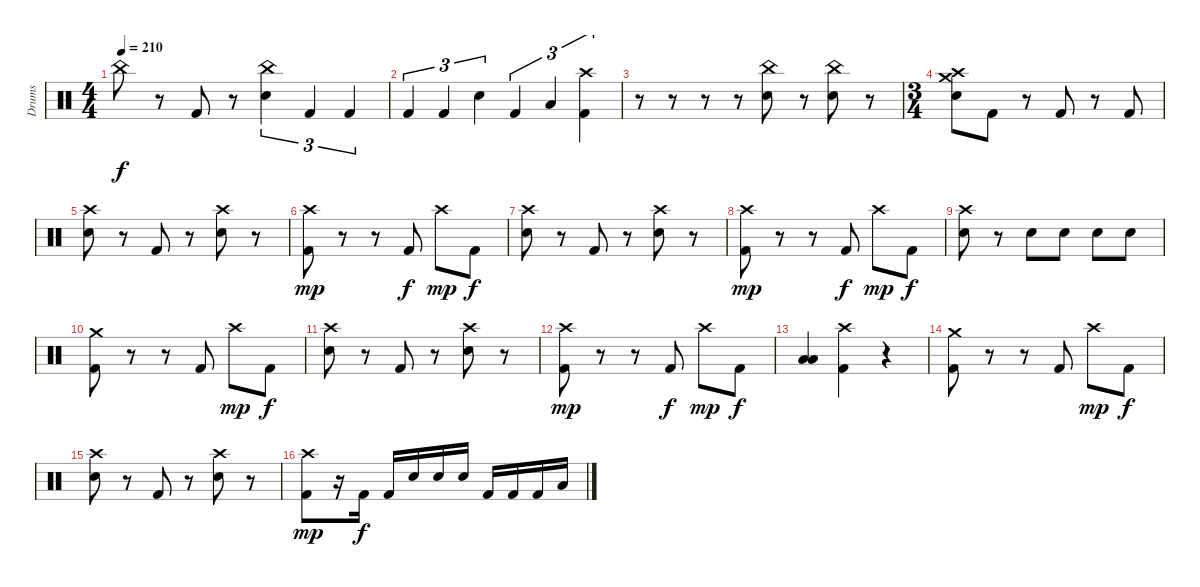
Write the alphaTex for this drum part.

\track ("Drums" "Drums") {instrument percussion}
\staff {score}
\articulation defaults
\ts (4 4)
\tempo 210
\clef neutral
\ks c "China (hit)".8{dy f}
r.8 "Kick (hit) 2".8 r.8 ("China (hit)" "Electric Snare (hit)").4{tu (3 2)} "Kick (hit) 2".4{tu (3 2)} "Kick (hit) 2".4{tu (3 2)} |
"Kick (hit) 2".4{tu (3 2)} "Kick (hit) 2".4{tu (3 2)} "Electric Snare (hit)".4{tu (3 2)} "Kick (hit) 2".4{tu (3 2)} "Low Tom (hit)".4{tu (3 2)} ("Crash high (hit)" "Kick (hit) 2").4{tu (3 2)} |
r.8 r.8 r.8 r.8 ("China (hit)" "Electric Snare (hit)").8 r.8 ("China (hit)" "Electric Snare (hit)").8 r.8 |
\ts (3 4)
("Crash high (hit)" "Crash medium (hit)" "Electric Snare (hit)").8 "Kick (hit) 2".8 r.8 "Kick (hit) 2".8 r.8 "Kick (hit) 2".8 |
("Crash high (hit)" "Electric Snare (hit)").8 r.8 "Kick (hit) 2".8 r.8 ("Crash high (hit)" "Electric Snare (hit)").8 r.8 |
("Crash high (hit)" "Kick (hit) 2").8{dy mp} r.8 r.8 "Kick (hit) 2".8{dy f} "Crash high (hit)".8{dy mp} "Kick (hit) 2".8{dy f} |
("Crash high (hit)" "Electric Snare (hit)").8 r.8 "Kick (hit) 2".8 r.8 ("Crash high (hit)" "Electric Snare (hit)").8 r.8 |
("Crash high (hit)" "Kick (hit) 2").8{dy mp} r.8 r.8 "Kick (hit) 2".8{dy f} "Crash high (hit)".8{dy mp} "Kick (hit) 2".8{dy f} |
("Crash high (hit)" "Electric Snare (hit)").8 r.8 "Electric Snare (hit)".8 "Electric Snare (hit)".8 "Electric Snare (hit)".8 "Electric Snare (hit)".8 |
("Crash medium (hit)" "Kick (hit) 2").8 r.8 r.8 "Kick (hit) 2".8 "Crash high (hit)".8{dy mp} "Kick (hit) 2".8{dy f} |
("Crash high (hit)" "Electric Snare (hit)").8 r.8 "Kick (hit) 2".8 r.8 ("Crash high (hit)" "Electric Snare (hit)").8 r.8 |
("Crash high (hit)" "Kick (hit) 2").8{dy mp} r.8 r.8 "Kick (hit) 2".8{dy f} "Crash high (hit)".8{dy mp} "Kick (hit) 2".8{dy f} |
("Low Floor Tom (hit)" "Low Floor Tom (hit)").4{bu 480} ("Crash high (hit)" "Kick (hit) 2").4 r.4 |
("Crash medium (hit)" "Kick (hit) 2").8 r.8 r.8 "Kick (hit) 2".8 "Crash high (hit)".8{dy mp} "Kick (hit) 2".8{dy f} |
("Crash high (hit)" "Electric Snare (hit)").8 r.8 "Kick (hit) 2".8 r.8 ("Crash high (hit)" "Electric Snare (hit)").8 r.8 |
("Crash high (hit)" "Kick (hit) 2").8{dy mp} r.16 "Kick (hit) 2".16{dy f} "Kick (hit) 2".16 "Electric Snare (hit)".16 "Electric Snare (hit)".16 "Electric Snare (hit)".16 "Kick (hit) 2".16 "Kick (hit) 2".16 "Kick (hit) 2".16 "Low Tom (hit)".16
